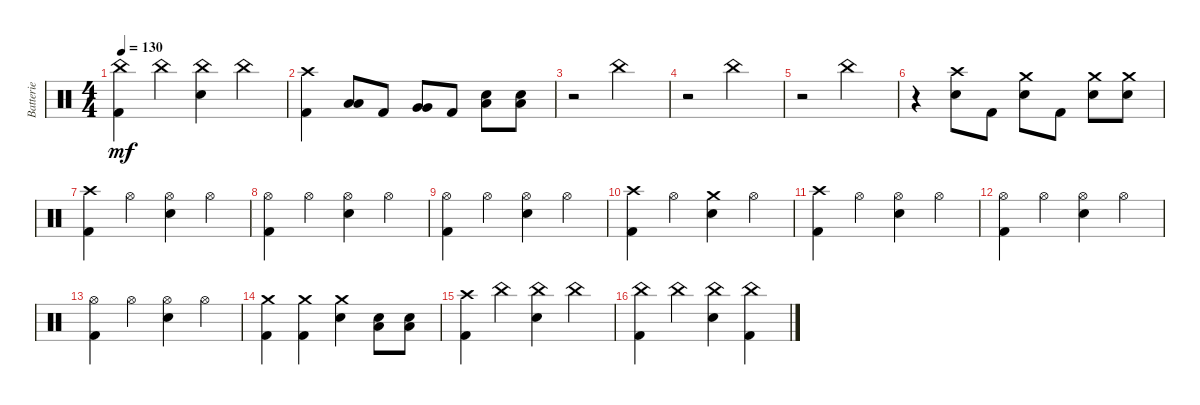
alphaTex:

\track ("Batterie" "Batterie") {instrument percussion}
\staff {score}
\articulation defaults
\ts (4 4)
\tempo 130
\clef neutral
\ks c
("China (hit)" "Kick (hit) 2").4{dy mf} "China (hit)".4 ("China (hit)" "Electric Snare (hit)").4 "China (hit)".4 |
("Crash high (hit)" "Kick (hit) 2").4 ("Low Tom (hit)" "Low Tom (hit)").8 "Kick (hit) 2".8 ("Very Low Tom (hit)" "Very Low Tom (hit)").8 "Kick (hit) 2".8 ("Electric Snare (hit)" "Low Floor Tom (hit)").8 ("Electric Snare (hit)" "Low Floor Tom (hit)").8 |
r.2 "China (hit)".2 |
r.2 "China (hit)".2 |
r.2 "China (hit)".2 |
r.4 ("Crash high (hit)" "Electric Snare (hit)").8 "Kick (hit) 2".8 ("Crash medium (hit)" "Electric Snare (hit)").8 "Kick (hit) 2".8 ("Crash medium (hit)" "Electric Snare (hit)").8 ("Crash medium (hit)" "Electric Snare (hit)").8 |
("Crash high (hit)" "Kick (hit) 2").4 "Hi-Hat (open)".4 ("Hi-Hat (open)" "Electric Snare (hit)").4 "Hi-Hat (open)".4 |
("Hi-Hat (open)" "Kick (hit) 2").4 "Hi-Hat (open)".4 ("Hi-Hat (open)" "Electric Snare (hit)").4 "Hi-Hat (open)".4 |
("Hi-Hat (open)" "Kick (hit) 2").4 "Hi-Hat (open)".4 ("Hi-Hat (open)" "Electric Snare (hit)").4 "Hi-Hat (open)".4 |
("Crash high (hit)" "Kick (hit) 2").4 "Hi-Hat (open)".4 ("Crash medium (hit)" "Electric Snare (hit)").4 "Hi-Hat (open)".4 |
("Crash high (hit)" "Kick (hit) 2").4 "Hi-Hat (open)".4 ("Hi-Hat (open)" "Electric Snare (hit)").4 "Hi-Hat (open)".4 |
("Hi-Hat (open)" "Kick (hit) 2").4 "Hi-Hat (open)".4 ("Hi-Hat (open)" "Electric Snare (hit)").4 "Hi-Hat (open)".4 |
("Hi-Hat (open)" "Kick (hit) 2").4 "Hi-Hat (open)".4 ("Hi-Hat (open)" "Electric Snare (hit)").4 "Hi-Hat (open)".4 |
("Crash medium (hit)" "Kick (hit) 2").4 ("Crash medium (hit)" "Kick (hit) 2").4 ("Crash medium (hit)" "Electric Snare (hit)").4 ("Electric Snare (hit)" "Low Floor Tom (hit)").8 ("Electric Snare (hit)" "Low Floor Tom (hit)").8 |
("Crash high (hit)" "Kick (hit) 2").4 "China (hit)".4 ("China (hit)" "Electric Snare (hit)").4 "China (hit)".4 |
("China (hit)" "Kick (hit) 2").4 "China (hit)".4 ("China (hit)" "Electric Snare (hit)").4 ("China (hit)" "Kick (hit) 2").4
